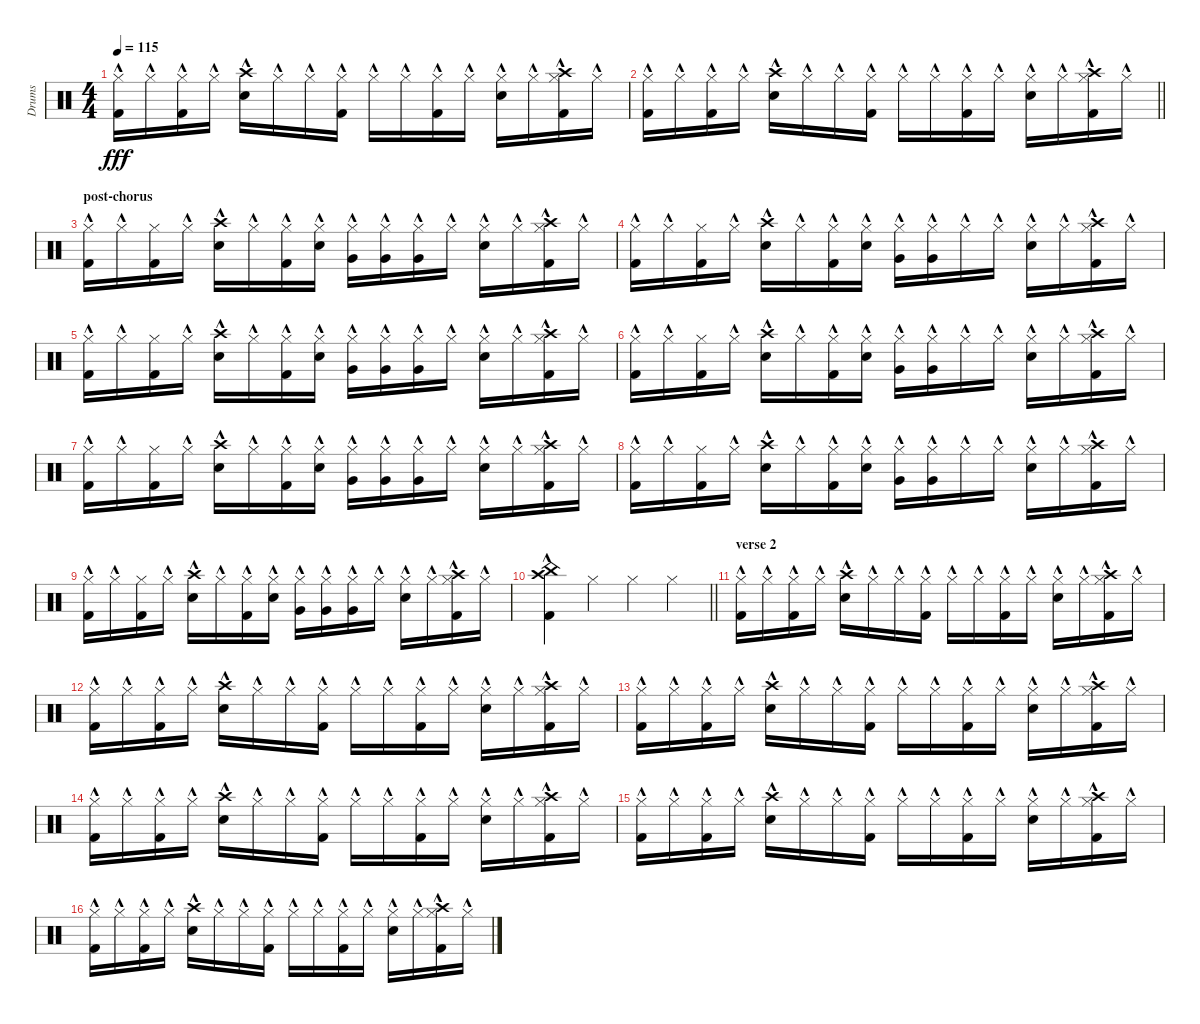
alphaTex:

\track ("Drums" "Drums") {instrument percussion}
\staff {score}
\articulation defaults
\ts (4 4)
\tempo 115
\clef neutral
\ks c
("Kick (hit) 2"{hac} "Hi-Hat (closed)").16{dy fff} "Hi-Hat (closed)"{hac}.16 ("Kick (hit) 2"{hac} "Hi-Hat (closed)").16 "Hi-Hat (closed)"{hac}.16 ("Electric Snare (hit)"{hac} "Crash high (hit)").16 "Hi-Hat (closed)"{hac}.16 "Hi-Hat (closed)"{hac}.16 ("Kick (hit) 2" "Hi-Hat (closed)"{hac}).16 "Hi-Hat (closed)"{hac}.16 "Hi-Hat (closed)"{hac}.16 ("Kick (hit) 2" "Hi-Hat (closed)"{hac}).16 "Hi-Hat (closed)"{hac}.16 ("Electric Snare (hit)" "Hi-Hat (closed)"{hac}).16 "Hi-Hat (closed)"{hac}.16 ("Crash high (hit)" "Kick (hit) 2" "Hi-Hat (closed)"{hac}).16 "Hi-Hat (closed)"{hac}.16 |
\barLineRight lightlight
("Kick (hit) 2"{hac} "Hi-Hat (closed)").16 "Hi-Hat (closed)"{hac}.16 ("Kick (hit) 2"{hac} "Hi-Hat (closed)").16 "Hi-Hat (closed)"{hac}.16 ("Electric Snare (hit)"{hac} "Crash high (hit)").16 "Hi-Hat (closed)"{hac}.16 "Hi-Hat (closed)"{hac}.16 ("Kick (hit) 2" "Hi-Hat (closed)"{hac}).16 "Hi-Hat (closed)"{hac}.16 "Hi-Hat (closed)"{hac}.16 ("Kick (hit) 2" "Hi-Hat (closed)"{hac}).16 "Hi-Hat (closed)"{hac}.16 ("Electric Snare (hit)" "Hi-Hat (closed)"{hac}).16 "Hi-Hat (closed)"{hac}.16 ("Crash high (hit)" "Kick (hit) 2" "Hi-Hat (closed)"{hac}).16 "Hi-Hat (closed)"{hac}.16 |
\section ("" "post-chorus")
("Kick (hit) 2"{hac} "Hi-Hat (closed)").16 "Hi-Hat (closed)"{hac}.16 ("Kick (hit) 2" "Hi-Hat (closed)").16 "Hi-Hat (closed)"{hac}.16 ("Electric Snare (hit)"{hac} "Crash high (hit)").16 "Hi-Hat (closed)"{hac}.16 ("Kick (hit) 2" "Hi-Hat (closed)"{hac}).16 ("Electric Snare (hit)" "Hi-Hat (closed)"{hac}).16 ("Very Low Tom (hit)" "Hi-Hat (closed)"{hac}).16 ("Very Low Tom (hit)" "Hi-Hat (closed)"{hac}).16 ("Very Low Tom (hit)" "Hi-Hat (closed)"{hac}).16 "Hi-Hat (closed)"{hac}.16 ("Electric Snare (hit)" "Hi-Hat (closed)"{hac}).16 "Hi-Hat (closed)"{hac}.16 ("Crash high (hit)" "Kick (hit) 2" "Hi-Hat (closed)"{hac}).16 "Hi-Hat (closed)"{hac}.16 |
("Kick (hit) 2"{hac} "Hi-Hat (closed)").16 "Hi-Hat (closed)"{hac}.16 ("Kick (hit) 2" "Hi-Hat (closed)").16 "Hi-Hat (closed)"{hac}.16 ("Electric Snare (hit)"{hac} "Crash high (hit)").16 "Hi-Hat (closed)"{hac}.16 ("Kick (hit) 2" "Hi-Hat (closed)"{hac}).16 ("Electric Snare (hit)" "Hi-Hat (closed)"{hac}).16 ("Very Low Tom (hit)" "Hi-Hat (closed)"{hac}).16 ("Very Low Tom (hit)" "Hi-Hat (closed)"{hac}).16 "Hi-Hat (closed)"{hac}.16 "Hi-Hat (closed)"{hac}.16 ("Electric Snare (hit)" "Hi-Hat (closed)"{hac}).16 "Hi-Hat (closed)"{hac}.16 ("Crash high (hit)" "Kick (hit) 2" "Hi-Hat (closed)"{hac}).16 "Hi-Hat (closed)"{hac}.16 |
("Kick (hit) 2"{hac} "Hi-Hat (closed)").16 "Hi-Hat (closed)"{hac}.16 ("Kick (hit) 2" "Hi-Hat (closed)").16 "Hi-Hat (closed)"{hac}.16 ("Electric Snare (hit)"{hac} "Crash high (hit)").16 "Hi-Hat (closed)"{hac}.16 ("Kick (hit) 2" "Hi-Hat (closed)"{hac}).16 ("Electric Snare (hit)" "Hi-Hat (closed)"{hac}).16 ("Very Low Tom (hit)" "Hi-Hat (closed)"{hac}).16 ("Very Low Tom (hit)" "Hi-Hat (closed)"{hac}).16 ("Very Low Tom (hit)" "Hi-Hat (closed)"{hac}).16 "Hi-Hat (closed)"{hac}.16 ("Electric Snare (hit)" "Hi-Hat (closed)"{hac}).16 "Hi-Hat (closed)"{hac}.16 ("Crash high (hit)" "Kick (hit) 2" "Hi-Hat (closed)"{hac}).16 "Hi-Hat (closed)"{hac}.16 |
("Kick (hit) 2"{hac} "Hi-Hat (closed)").16 "Hi-Hat (closed)"{hac}.16 ("Kick (hit) 2" "Hi-Hat (closed)").16 "Hi-Hat (closed)"{hac}.16 ("Electric Snare (hit)"{hac} "Crash high (hit)").16 "Hi-Hat (closed)"{hac}.16 ("Kick (hit) 2" "Hi-Hat (closed)"{hac}).16 ("Electric Snare (hit)" "Hi-Hat (closed)"{hac}).16 ("Very Low Tom (hit)" "Hi-Hat (closed)"{hac}).16 ("Very Low Tom (hit)" "Hi-Hat (closed)"{hac}).16 "Hi-Hat (closed)"{hac}.16 "Hi-Hat (closed)"{hac}.16 ("Electric Snare (hit)" "Hi-Hat (closed)"{hac}).16 "Hi-Hat (closed)"{hac}.16 ("Crash high (hit)" "Kick (hit) 2" "Hi-Hat (closed)"{hac}).16 "Hi-Hat (closed)"{hac}.16 |
("Kick (hit) 2"{hac} "Hi-Hat (closed)").16 "Hi-Hat (closed)"{hac}.16 ("Kick (hit) 2" "Hi-Hat (closed)").16 "Hi-Hat (closed)"{hac}.16 ("Electric Snare (hit)"{hac} "Crash high (hit)").16 "Hi-Hat (closed)"{hac}.16 ("Kick (hit) 2" "Hi-Hat (closed)"{hac}).16 ("Electric Snare (hit)" "Hi-Hat (closed)"{hac}).16 ("Very Low Tom (hit)" "Hi-Hat (closed)"{hac}).16 ("Very Low Tom (hit)" "Hi-Hat (closed)"{hac}).16 ("Very Low Tom (hit)" "Hi-Hat (closed)"{hac}).16 "Hi-Hat (closed)"{hac}.16 ("Electric Snare (hit)" "Hi-Hat (closed)"{hac}).16 "Hi-Hat (closed)"{hac}.16 ("Crash high (hit)" "Kick (hit) 2" "Hi-Hat (closed)"{hac}).16 "Hi-Hat (closed)"{hac}.16 |
("Kick (hit) 2"{hac} "Hi-Hat (closed)").16 "Hi-Hat (closed)"{hac}.16 ("Kick (hit) 2" "Hi-Hat (closed)").16 "Hi-Hat (closed)"{hac}.16 ("Electric Snare (hit)"{hac} "Crash high (hit)").16 "Hi-Hat (closed)"{hac}.16 ("Kick (hit) 2" "Hi-Hat (closed)"{hac}).16 ("Electric Snare (hit)" "Hi-Hat (closed)"{hac}).16 ("Very Low Tom (hit)" "Hi-Hat (closed)"{hac}).16 ("Very Low Tom (hit)" "Hi-Hat (closed)"{hac}).16 "Hi-Hat (closed)"{hac}.16 "Hi-Hat (closed)"{hac}.16 ("Electric Snare (hit)" "Hi-Hat (closed)"{hac}).16 "Hi-Hat (closed)"{hac}.16 ("Crash high (hit)" "Kick (hit) 2" "Hi-Hat (closed)"{hac}).16 "Hi-Hat (closed)"{hac}.16 |
("Kick (hit) 2"{hac} "Hi-Hat (closed)").16 "Hi-Hat (closed)"{hac}.16 ("Kick (hit) 2" "Hi-Hat (closed)").16 "Hi-Hat (closed)"{hac}.16 ("Electric Snare (hit)"{hac} "Crash high (hit)").16 "Hi-Hat (closed)"{hac}.16 ("Kick (hit) 2" "Hi-Hat (closed)"{hac}).16 ("Electric Snare (hit)" "Hi-Hat (closed)"{hac}).16 ("Very Low Tom (hit)" "Hi-Hat (closed)"{hac}).16 ("Very Low Tom (hit)" "Hi-Hat (closed)"{hac}).16 ("Very Low Tom (hit)" "Hi-Hat (closed)"{hac}).16 "Hi-Hat (closed)"{hac}.16 ("Electric Snare (hit)" "Hi-Hat (closed)"{hac}).16 "Hi-Hat (closed)"{hac}.16 ("Crash high (hit)" "Kick (hit) 2" "Hi-Hat (closed)"{hac}).16 "Hi-Hat (closed)"{hac}.16 |
\barLineRight lightlight
("China (hit)" "Kick (hit) 2"{hac} "Crash high (hit)").4 "Hi-Hat (closed)".4 "Hi-Hat (closed)".4 "Hi-Hat (closed)".4 |
\section ("" "verse 2")
("Kick (hit) 2"{hac} "Hi-Hat (closed)"{hac}).16 "Hi-Hat (closed)"{hac}.16 ("Kick (hit) 2"{hac} "Hi-Hat (closed)"{hac}).16 "Hi-Hat (closed)"{hac}.16 ("Electric Snare (hit)"{hac} "Crash high (hit)"{hac}).16 "Hi-Hat (closed)"{hac}.16 "Hi-Hat (closed)"{hac}.16 ("Kick (hit) 2" "Hi-Hat (closed)"{hac}).16 "Hi-Hat (closed)"{hac}.16 "Hi-Hat (closed)"{hac}.16 ("Kick (hit) 2" "Hi-Hat (closed)"{hac}).16 "Hi-Hat (closed)"{hac}.16 ("Electric Snare (hit)" "Hi-Hat (closed)"{hac}).16 "Hi-Hat (closed)"{hac}.16 ("Crash high (hit)" "Kick (hit) 2" "Hi-Hat (closed)"{hac}).16 "Hi-Hat (closed)"{hac}.16 |
("Kick (hit) 2"{hac} "Hi-Hat (closed)").16 "Hi-Hat (closed)"{hac}.16 ("Kick (hit) 2"{hac} "Hi-Hat (closed)").16 "Hi-Hat (closed)"{hac}.16 ("Electric Snare (hit)"{hac} "Crash high (hit)").16 "Hi-Hat (closed)"{hac}.16 "Hi-Hat (closed)"{hac}.16 ("Kick (hit) 2" "Hi-Hat (closed)"{hac}).16 "Hi-Hat (closed)"{hac}.16 "Hi-Hat (closed)"{hac}.16 ("Kick (hit) 2" "Hi-Hat (closed)"{hac}).16 "Hi-Hat (closed)"{hac}.16 ("Electric Snare (hit)" "Hi-Hat (closed)"{hac}).16 "Hi-Hat (closed)"{hac}.16 ("Crash high (hit)" "Kick (hit) 2" "Hi-Hat (closed)"{hac}).16 "Hi-Hat (closed)"{hac}.16 |
("Kick (hit) 2"{hac} "Hi-Hat (closed)").16 "Hi-Hat (closed)"{hac}.16 ("Kick (hit) 2"{hac} "Hi-Hat (closed)").16 "Hi-Hat (closed)"{hac}.16 ("Electric Snare (hit)"{hac} "Crash high (hit)").16 "Hi-Hat (closed)"{hac}.16 "Hi-Hat (closed)"{hac}.16 ("Kick (hit) 2" "Hi-Hat (closed)"{hac}).16 "Hi-Hat (closed)"{hac}.16 "Hi-Hat (closed)"{hac}.16 ("Kick (hit) 2" "Hi-Hat (closed)"{hac}).16 "Hi-Hat (closed)"{hac}.16 ("Electric Snare (hit)" "Hi-Hat (closed)"{hac}).16 "Hi-Hat (closed)"{hac}.16 ("Crash high (hit)" "Kick (hit) 2" "Hi-Hat (closed)"{hac}).16 "Hi-Hat (closed)"{hac}.16 |
("Kick (hit) 2"{hac} "Hi-Hat (closed)").16 "Hi-Hat (closed)"{hac}.16 ("Kick (hit) 2"{hac} "Hi-Hat (closed)").16 "Hi-Hat (closed)"{hac}.16 ("Electric Snare (hit)"{hac} "Crash high (hit)").16 "Hi-Hat (closed)"{hac}.16 "Hi-Hat (closed)"{hac}.16 ("Kick (hit) 2" "Hi-Hat (closed)"{hac}).16 "Hi-Hat (closed)"{hac}.16 "Hi-Hat (closed)"{hac}.16 ("Kick (hit) 2" "Hi-Hat (closed)"{hac}).16 "Hi-Hat (closed)"{hac}.16 ("Electric Snare (hit)" "Hi-Hat (closed)"{hac}).16 "Hi-Hat (closed)"{hac}.16 ("Crash high (hit)" "Kick (hit) 2" "Hi-Hat (closed)"{hac}).16 "Hi-Hat (closed)"{hac}.16 |
("Kick (hit) 2"{hac} "Hi-Hat (closed)").16 "Hi-Hat (closed)"{hac}.16 ("Kick (hit) 2"{hac} "Hi-Hat (closed)").16 "Hi-Hat (closed)"{hac}.16 ("Electric Snare (hit)"{hac} "Crash high (hit)").16 "Hi-Hat (closed)"{hac}.16 "Hi-Hat (closed)"{hac}.16 ("Kick (hit) 2" "Hi-Hat (closed)"{hac}).16 "Hi-Hat (closed)"{hac}.16 "Hi-Hat (closed)"{hac}.16 ("Kick (hit) 2" "Hi-Hat (closed)"{hac}).16 "Hi-Hat (closed)"{hac}.16 ("Electric Snare (hit)" "Hi-Hat (closed)"{hac}).16 "Hi-Hat (closed)"{hac}.16 ("Crash high (hit)" "Kick (hit) 2" "Hi-Hat (closed)"{hac}).16 "Hi-Hat (closed)"{hac}.16 |
("Kick (hit) 2"{hac} "Hi-Hat (closed)").16 "Hi-Hat (closed)"{hac}.16 ("Kick (hit) 2"{hac} "Hi-Hat (closed)").16 "Hi-Hat (closed)"{hac}.16 ("Electric Snare (hit)"{hac} "Crash high (hit)").16 "Hi-Hat (closed)"{hac}.16 "Hi-Hat (closed)"{hac}.16 ("Kick (hit) 2" "Hi-Hat (closed)"{hac}).16 "Hi-Hat (closed)"{hac}.16 "Hi-Hat (closed)"{hac}.16 ("Kick (hit) 2" "Hi-Hat (closed)"{hac}).16 "Hi-Hat (closed)"{hac}.16 ("Electric Snare (hit)" "Hi-Hat (closed)"{hac}).16 "Hi-Hat (closed)"{hac}.16 ("Crash high (hit)" "Kick (hit) 2" "Hi-Hat (closed)"{hac}).16 "Hi-Hat (closed)"{hac}.16
